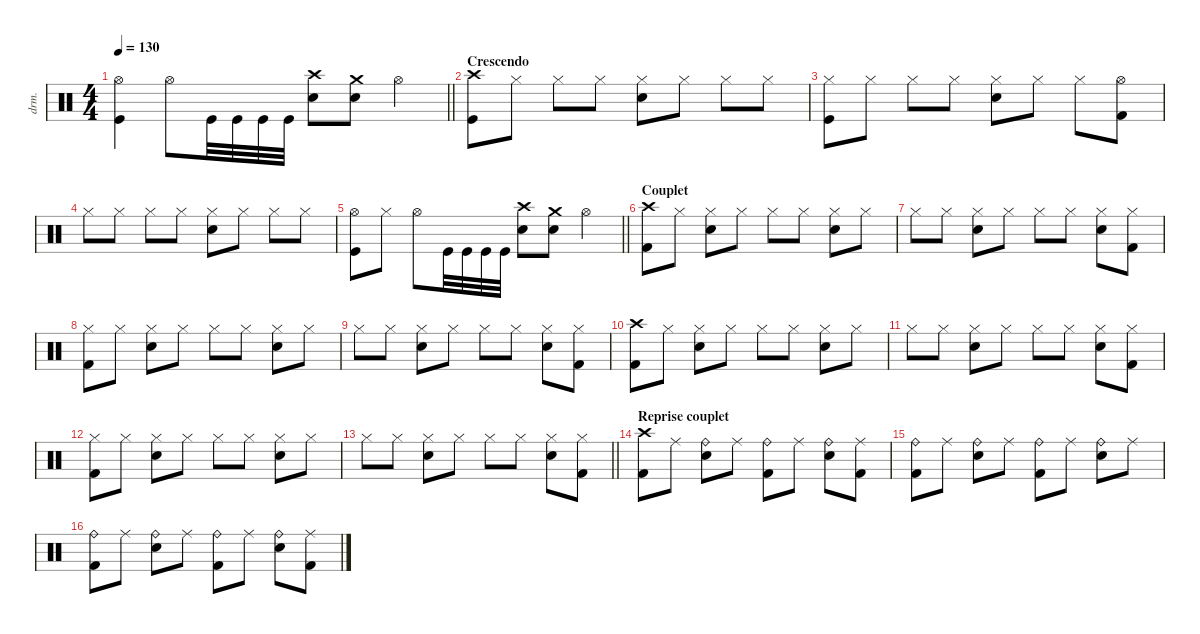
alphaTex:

\defaultSystemsLayout 4
\hideDynamics
\bracketExtendMode nobrackets
\otherSystemsTrackNameOrientation horizontal
\track ("Manouche" "drm.") {instrument percussion}
\staff {score}
\articulation defaults
\ts (4 4)
\tempo 130
\clef neutral
\barLineRight lightlight
\ks c
("Hi-Hat (open)" "Kick (hit)").4{dy f beam Down} "Hi-Hat (open)".8{beam Down} "Kick (hit)".32{beam Down} "Kick (hit)".32{beam Down} "Kick (hit)".32{beam Down} "Kick (hit)".32{beam Down} ("Snare (hit) 2" "Crash high (hit)").8{beam Down} ("Crash medium (hit)" "Snare (hit) 2").8{beam Down} "Hi-Hat (open)".4{beam Down} |
\section ("" "Crescendo")
("Crash high (hit)" "Kick (hit)").8{dy mp beam Down} "Hi-Hat (closed)".8{beam Down} "Hi-Hat (closed)".8{beam Down} "Hi-Hat (closed)".8{beam Down} ("Hi-Hat (closed)" "Snare (hit) 2").8{beam Down} "Hi-Hat (closed)".8{beam Down} "Hi-Hat (closed)".8{beam Down} "Hi-Hat (closed)".8{beam Down} |
("Hi-Hat (closed)" "Kick (hit)").8{beam Down} "Hi-Hat (closed)".8{beam Down} "Hi-Hat (closed)".8{beam Down} "Hi-Hat (closed)".8{beam Down} ("Hi-Hat (closed)" "Snare (hit) 2").8{beam Down} "Hi-Hat (closed)".8{beam Down} "Hi-Hat (closed)".8{beam Down} ("Hi-Hat (open)" "Kick (hit) 2").8{beam Down} |
"Hi-Hat (closed)".8{dy mf beam Down} "Hi-Hat (closed)".8{dy mp beam Down} "Hi-Hat (closed)".8{beam Down} "Hi-Hat (closed)".8{beam Down} ("Hi-Hat (closed)" "Snare (hit) 2").8{beam Down} "Hi-Hat (closed)".8{beam Down} "Hi-Hat (closed)".8{beam Down} "Hi-Hat (closed)".8{beam Down} |
\barLineRight lightlight
("Kick (hit)" "Hi-Hat (open)").8{dy f beam Down} "Hi-Hat (closed)".8{beam Down} "Hi-Hat (open)".8{beam Down} "Kick (hit)".32{beam Down} "Kick (hit)".32{beam Down} "Kick (hit)".32{beam Down} "Kick (hit)".32{beam Down} ("Snare (hit) 2" "Crash high (hit)").8{beam Down} ("Crash medium (hit)" "Snare (hit) 2").8{beam Down} "Hi-Hat (open)".4{beam Down} |
\section ("" "Couplet")
("Crash high (hit)" "Kick (hit) 2").8{beam Down} "Hi-Hat (closed)".8{dy mp beam Down} ("Hi-Hat (closed)" "Snare (hit) 2").8{dy f beam Down} "Hi-Hat (closed)".8{dy mp beam Down} "Hi-Hat (closed)".8{dy f beam Down} "Hi-Hat (closed)".8{dy mp beam Down} ("Hi-Hat (closed)" "Snare (hit) 2").8{dy f beam Down} "Hi-Hat (closed)".8{dy mp beam Down} |
"Hi-Hat (closed)".8{dy f beam Down} "Hi-Hat (closed)".8{dy mp beam Down} ("Hi-Hat (closed)" "Snare (hit) 2").8{dy f beam Down} "Hi-Hat (closed)".8{dy mp beam Down} "Hi-Hat (closed)".8{dy f beam Down} "Hi-Hat (closed)".8{dy mp beam Down} ("Hi-Hat (closed)" "Snare (hit) 2").8{dy f beam Down} ("Hi-Hat (closed)" "Kick (hit) 2").8{dy mp beam Down} |
("Hi-Hat (closed)" "Kick (hit) 2").8{beam Down} "Hi-Hat (closed)".8{beam Down} ("Hi-Hat (closed)" "Snare (hit) 2").8{dy f beam Down} "Hi-Hat (closed)".8{dy mp beam Down} "Hi-Hat (closed)".8{dy f beam Down} "Hi-Hat (closed)".8{dy mp beam Down} ("Hi-Hat (closed)" "Snare (hit) 2").8{dy f beam Down} "Hi-Hat (closed)".8{dy mp beam Down} |
"Hi-Hat (closed)".8{dy f beam Down} "Hi-Hat (closed)".8{dy mp beam Down} ("Hi-Hat (closed)" "Snare (hit) 2").8{dy f beam Down} "Hi-Hat (closed)".8{dy mp beam Down} "Hi-Hat (closed)".8{dy f beam Down} "Hi-Hat (closed)".8{dy mp beam Down} ("Hi-Hat (closed)" "Snare (hit) 2").8{dy f beam Down} ("Hi-Hat (closed)" "Kick (hit) 2").8{dy mp beam Down} |
("Crash high (hit)" "Kick (hit) 2").8{dy f beam Down} "Hi-Hat (closed)".8{dy mp beam Down} ("Hi-Hat (closed)" "Snare (hit) 2").8{dy f beam Down} "Hi-Hat (closed)".8{dy mp beam Down} "Hi-Hat (closed)".8{dy f beam Down} "Hi-Hat (closed)".8{dy mp beam Down} ("Hi-Hat (closed)" "Snare (hit) 2").8{dy f beam Down} "Hi-Hat (closed)".8{dy mp beam Down} |
"Hi-Hat (closed)".8{dy f beam Down} "Hi-Hat (closed)".8{dy mp beam Down} ("Hi-Hat (closed)" "Snare (hit) 2").8{dy f beam Down} "Hi-Hat (closed)".8{dy mp beam Down} "Hi-Hat (closed)".8{dy f beam Down} "Hi-Hat (closed)".8{dy mp beam Down} ("Hi-Hat (closed)" "Snare (hit) 2").8{dy f beam Down} ("Hi-Hat (closed)" "Kick (hit) 2").8{dy mp beam Down} |
("Hi-Hat (closed)" "Kick (hit) 2").8{beam Down} "Hi-Hat (closed)".8{beam Down} ("Hi-Hat (closed)" "Snare (hit) 2").8{dy f beam Down} "Hi-Hat (closed)".8{dy mp beam Down} "Hi-Hat (closed)".8{dy f beam Down} "Hi-Hat (closed)".8{dy mp beam Down} ("Hi-Hat (closed)" "Snare (hit) 2").8{dy f beam Down} "Hi-Hat (closed)".8{dy mp beam Down} |
\barLineRight lightlight "Hi-Hat (closed)".8{dy f beam Down} "Hi-Hat (closed)".8{dy mp beam Down}
("Hi-Hat (closed)" "Snare (hit) 2").8{dy f beam Down} "Hi-Hat (closed)".8{dy mp beam Down} "Hi-Hat (closed)".8{dy f beam Down} "Hi-Hat (closed)".8{dy mp beam Down} ("Hi-Hat (closed)" "Snare (hit) 2").8{dy f beam Down} ("Hi-Hat (closed)" "Kick (hit) 2").8{dy mp beam Down} |
\section ("" "Reprise couplet")
("Crash high (hit)" "Kick (hit) 2").8{dy f beam Down} "Ride (middle)".8{dy mf beam Down} ("Ride (bell)" "Snare (hit) 2").8{dy f beam Down} "Ride (middle)".8{dy mf beam Down} ("Ride (bell)" "Kick (hit) 2").8{dy f beam Down} "Ride (middle)".8{dy mf beam Down} ("Ride (bell)" "Snare (hit) 2").8{dy f beam Down} ("Ride (middle)" "Kick (hit) 2").8{dy mf beam Down} |
("Ride (bell)" "Kick (hit) 2").8{dy f beam Down} "Ride (middle)".8{dy mf beam Down} ("Ride (bell)" "Snare (hit) 2").8{dy f beam Down} "Ride (middle)".8{dy mf beam Down} ("Ride (bell)" "Kick (hit) 2").8{dy f beam Down} "Ride (middle)".8{dy mf beam Down} ("Ride (bell)" "Snare (hit) 2").8{dy f beam Down} "Ride (middle)".8{dy mf beam Down} |
("Ride (bell)" "Kick (hit) 2").8{dy f beam Down} "Ride (middle)".8{dy mf beam Down} ("Ride (bell)" "Snare (hit) 2").8{dy f beam Down} "Ride (middle)".8{dy mf beam Down} ("Ride (bell)" "Kick (hit) 2").8{dy f beam Down} "Ride (middle)".8{dy mf beam Down} ("Ride (bell)" "Snare (hit) 2").8{dy f beam Down} ("Ride (middle)" "Kick (hit) 2").8{dy mf beam Down}
